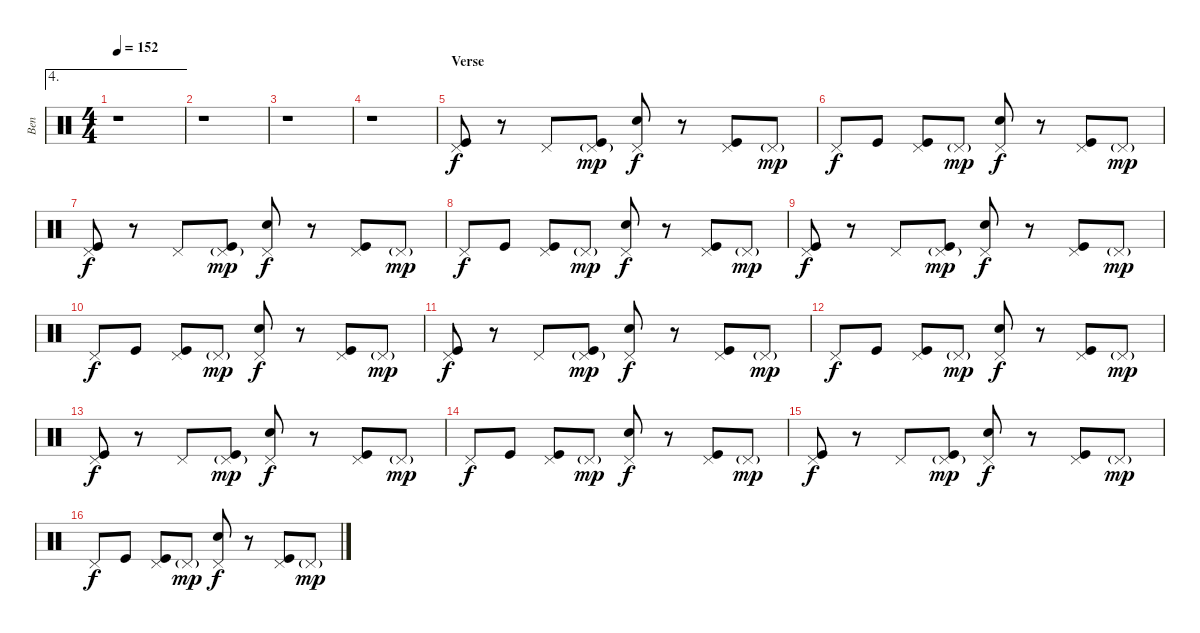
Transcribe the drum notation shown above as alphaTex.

\track ("Ben" "Ben") {instrument percussion}
\staff {score}
\articulation defaults
\ae 4
\ts (4 4)
\tempo 152
\clef neutral
\ks c
r.1{dy f} |
r.1 |
r.1 |
r.1 |
\section ("" "Verse")
("Pedal Hi-Hat (hit)" "Kick (hit)").8 r.8 "Pedal Hi-Hat (hit)".8 ("Pedal Hi-Hat (hit)"{g} "Kick (hit)").8{dy mp} ("Pedal Hi-Hat (hit)" "Electric Snare (hit)").8{dy f} r.8 ("Pedal Hi-Hat (hit)" "Kick (hit)").8 "Pedal Hi-Hat (hit)"{g}.8{dy mp} |
"Pedal Hi-Hat (hit)".8{dy f} "Kick (hit)".8 ("Pedal Hi-Hat (hit)" "Kick (hit)").8 "Pedal Hi-Hat (hit)"{g}.8{dy mp} ("Pedal Hi-Hat (hit)" "Electric Snare (hit)").8{dy f} r.8 ("Pedal Hi-Hat (hit)" "Kick (hit)").8 "Pedal Hi-Hat (hit)"{g}.8{dy mp} |
("Pedal Hi-Hat (hit)" "Kick (hit)").8{dy f} r.8 "Pedal Hi-Hat (hit)".8 ("Pedal Hi-Hat (hit)"{g} "Kick (hit)").8{dy mp} ("Pedal Hi-Hat (hit)" "Electric Snare (hit)").8{dy f} r.8 ("Pedal Hi-Hat (hit)" "Kick (hit)").8 "Pedal Hi-Hat (hit)"{g}.8{dy mp} |
"Pedal Hi-Hat (hit)".8{dy f} "Kick (hit)".8 ("Pedal Hi-Hat (hit)" "Kick (hit)").8 "Pedal Hi-Hat (hit)"{g}.8{dy mp} ("Pedal Hi-Hat (hit)" "Electric Snare (hit)").8{dy f} r.8 ("Pedal Hi-Hat (hit)" "Kick (hit)").8 "Pedal Hi-Hat (hit)"{g}.8{dy mp} |
("Pedal Hi-Hat (hit)" "Kick (hit)").8{dy f} r.8 "Pedal Hi-Hat (hit)".8 ("Pedal Hi-Hat (hit)"{g} "Kick (hit)").8{dy mp} ("Pedal Hi-Hat (hit)" "Electric Snare (hit)").8{dy f} r.8 ("Pedal Hi-Hat (hit)" "Kick (hit)").8 "Pedal Hi-Hat (hit)"{g}.8{dy mp} |
"Pedal Hi-Hat (hit)".8{dy f} "Kick (hit)".8 ("Pedal Hi-Hat (hit)" "Kick (hit)").8 "Pedal Hi-Hat (hit)"{g}.8{dy mp} ("Pedal Hi-Hat (hit)" "Electric Snare (hit)").8{dy f} r.8 ("Pedal Hi-Hat (hit)" "Kick (hit)").8 "Pedal Hi-Hat (hit)"{g}.8{dy mp} |
("Pedal Hi-Hat (hit)" "Kick (hit)").8{dy f} r.8 "Pedal Hi-Hat (hit)".8 ("Pedal Hi-Hat (hit)"{g} "Kick (hit)").8{dy mp} ("Pedal Hi-Hat (hit)" "Electric Snare (hit)").8{dy f} r.8 ("Pedal Hi-Hat (hit)" "Kick (hit)").8 "Pedal Hi-Hat (hit)"{g}.8{dy mp} |
"Pedal Hi-Hat (hit)".8{dy f} "Kick (hit)".8 ("Pedal Hi-Hat (hit)" "Kick (hit)").8 "Pedal Hi-Hat (hit)"{g}.8{dy mp} ("Pedal Hi-Hat (hit)" "Electric Snare (hit)").8{dy f} r.8 ("Pedal Hi-Hat (hit)" "Kick (hit)").8 "Pedal Hi-Hat (hit)"{g}.8{dy mp} |
("Pedal Hi-Hat (hit)" "Kick (hit)").8{dy f} r.8 "Pedal Hi-Hat (hit)".8 ("Pedal Hi-Hat (hit)"{g} "Kick (hit)").8{dy mp} ("Pedal Hi-Hat (hit)" "Electric Snare (hit)").8{dy f} r.8 ("Pedal Hi-Hat (hit)" "Kick (hit)").8 "Pedal Hi-Hat (hit)"{g}.8{dy mp} |
"Pedal Hi-Hat (hit)".8{dy f} "Kick (hit)".8 ("Pedal Hi-Hat (hit)" "Kick (hit)").8 "Pedal Hi-Hat (hit)"{g}.8{dy mp} ("Pedal Hi-Hat (hit)" "Electric Snare (hit)").8{dy f} r.8 ("Pedal Hi-Hat (hit)" "Kick (hit)").8 "Pedal Hi-Hat (hit)"{g}.8{dy mp} |
("Pedal Hi-Hat (hit)" "Kick (hit)").8{dy f} r.8 "Pedal Hi-Hat (hit)".8 ("Pedal Hi-Hat (hit)"{g} "Kick (hit)").8{dy mp} ("Pedal Hi-Hat (hit)" "Electric Snare (hit)").8{dy f} r.8 ("Pedal Hi-Hat (hit)" "Kick (hit)").8 "Pedal Hi-Hat (hit)"{g}.8{dy mp} |
"Pedal Hi-Hat (hit)".8{dy f} "Kick (hit)".8 ("Pedal Hi-Hat (hit)" "Kick (hit)").8 "Pedal Hi-Hat (hit)"{g}.8{dy mp} ("Pedal Hi-Hat (hit)" "Electric Snare (hit)").8{dy f} r.8 ("Pedal Hi-Hat (hit)" "Kick (hit)").8 "Pedal Hi-Hat (hit)"{g}.8{dy mp}
